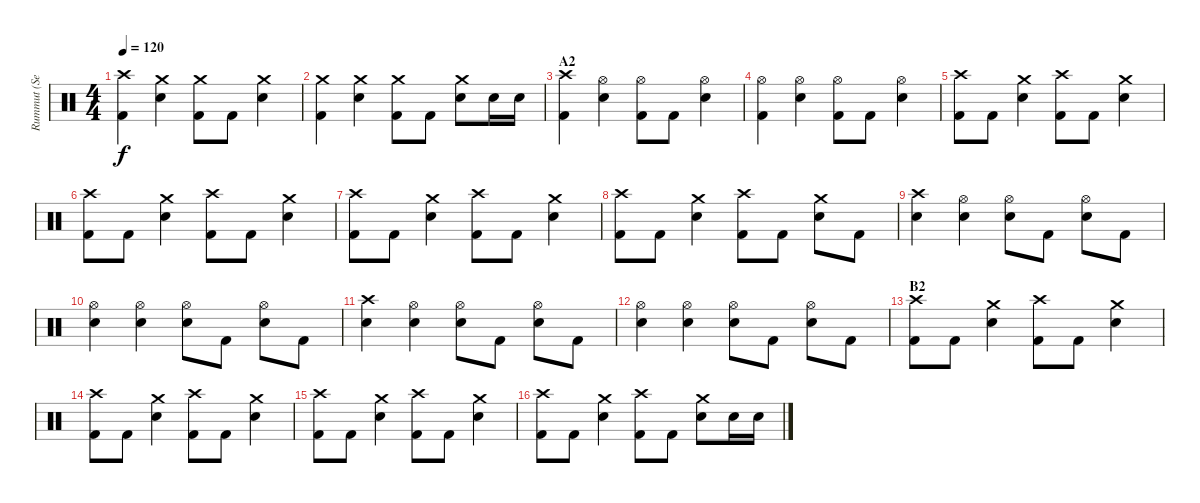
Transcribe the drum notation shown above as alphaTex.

\track ("Rummut (Seppo Pohjolainen)" "Rummut (Se") {instrument percussion}
\staff {score}
\articulation defaults
\ts (4 4)
\tempo 120
\clef neutral
\ks c
("Crash high (hit)" "Kick (hit) 2").4{dy f} ("Crash medium (hit)" "Electric Snare (hit)").4 ("Crash medium (hit)" "Kick (hit) 2").8 "Kick (hit) 2".8 ("Crash medium (hit)" "Electric Snare (hit)").4 |
("Crash medium (hit)" "Kick (hit) 2").4 ("Crash medium (hit)" "Electric Snare (hit)").4 ("Crash medium (hit)" "Kick (hit) 2").8 "Kick (hit) 2".8 ("Crash medium (hit)" "Electric Snare (hit)").8 "Electric Snare (hit)".16 "Electric Snare (hit)".16 |
\section ("" "A2")
("Crash high (hit)" "Kick (hit) 2").4 ("Hi-Hat (open)" "Electric Snare (hit)").4 ("Hi-Hat (open)" "Kick (hit) 2").8 "Kick (hit) 2".8 ("Hi-Hat (open)" "Electric Snare (hit)").4 |
("Hi-Hat (open)" "Kick (hit) 2").4 ("Hi-Hat (open)" "Electric Snare (hit)").4 ("Hi-Hat (open)" "Kick (hit) 2").8 "Kick (hit) 2".8 ("Hi-Hat (open)" "Electric Snare (hit)").4 |
("Crash high (hit)" "Kick (hit) 2").8 "Kick (hit) 2".8 ("Crash medium (hit)" "Electric Snare (hit)").4 ("Crash high (hit)" "Kick (hit) 2").8 "Kick (hit) 2".8 ("Crash medium (hit)" "Electric Snare (hit)").4 |
("Crash high (hit)" "Kick (hit) 2").8 "Kick (hit) 2".8 ("Crash medium (hit)" "Electric Snare (hit)").4 ("Crash high (hit)" "Kick (hit) 2").8 "Kick (hit) 2".8 ("Crash medium (hit)" "Electric Snare (hit)").4 |
("Crash high (hit)" "Kick (hit) 2").8 "Kick (hit) 2".8 ("Crash medium (hit)" "Electric Snare (hit)").4 ("Crash high (hit)" "Kick (hit) 2").8 "Kick (hit) 2".8 ("Crash medium (hit)" "Electric Snare (hit)").4 |
("Crash high (hit)" "Kick (hit) 2").8 "Kick (hit) 2".8 ("Crash medium (hit)" "Electric Snare (hit)").4 ("Crash high (hit)" "Kick (hit) 2").8 "Kick (hit) 2".8 ("Crash medium (hit)" "Electric Snare (hit)").8 "Kick (hit) 2".8 |
("Crash high (hit)" "Electric Snare (hit)").4 ("Hi-Hat (open)" "Electric Snare (hit)").4 ("Hi-Hat (open)" "Electric Snare (hit)").8 "Kick (hit) 2".8 ("Hi-Hat (open)" "Electric Snare (hit)").8 "Kick (hit) 2".8 |
("Hi-Hat (open)" "Electric Snare (hit)").4 ("Hi-Hat (open)" "Electric Snare (hit)").4 ("Hi-Hat (open)" "Electric Snare (hit)").8 "Kick (hit) 2".8 ("Hi-Hat (open)" "Electric Snare (hit)").8 "Kick (hit) 2".8 |
("Crash high (hit)" "Electric Snare (hit)").4 ("Hi-Hat (open)" "Electric Snare (hit)").4 ("Hi-Hat (open)" "Electric Snare (hit)").8 "Kick (hit) 2".8 ("Hi-Hat (open)" "Electric Snare (hit)").8 "Kick (hit) 2".8 |
("Hi-Hat (open)" "Electric Snare (hit)").4 ("Hi-Hat (open)" "Electric Snare (hit)").4 ("Hi-Hat (open)" "Electric Snare (hit)").8 "Kick (hit) 2".8 ("Hi-Hat (open)" "Electric Snare (hit)").8 "Kick (hit) 2".8 |
\section ("" "B2")
("Crash high (hit)" "Kick (hit) 2").8 "Kick (hit) 2".8 ("Crash medium (hit)" "Electric Snare (hit)").4 ("Crash high (hit)" "Kick (hit) 2").8 "Kick (hit) 2".8 ("Crash medium (hit)" "Electric Snare (hit)").4 |
("Crash high (hit)" "Kick (hit) 2").8 "Kick (hit) 2".8 ("Crash medium (hit)" "Electric Snare (hit)").4 ("Crash high (hit)" "Kick (hit) 2").8 "Kick (hit) 2".8 ("Crash medium (hit)" "Electric Snare (hit)").4 |
("Crash high (hit)" "Kick (hit) 2").8 "Kick (hit) 2".8 ("Crash medium (hit)" "Electric Snare (hit)").4 ("Crash high (hit)" "Kick (hit) 2").8 "Kick (hit) 2".8 ("Crash medium (hit)" "Electric Snare (hit)").4 |
("Crash high (hit)" "Kick (hit) 2").8 "Kick (hit) 2".8 ("Crash medium (hit)" "Electric Snare (hit)").4 ("Crash high (hit)" "Kick (hit) 2").8 "Kick (hit) 2".8 ("Crash medium (hit)" "Electric Snare (hit)").8 "Electric Snare (hit)".16 "Electric Snare (hit)".16
